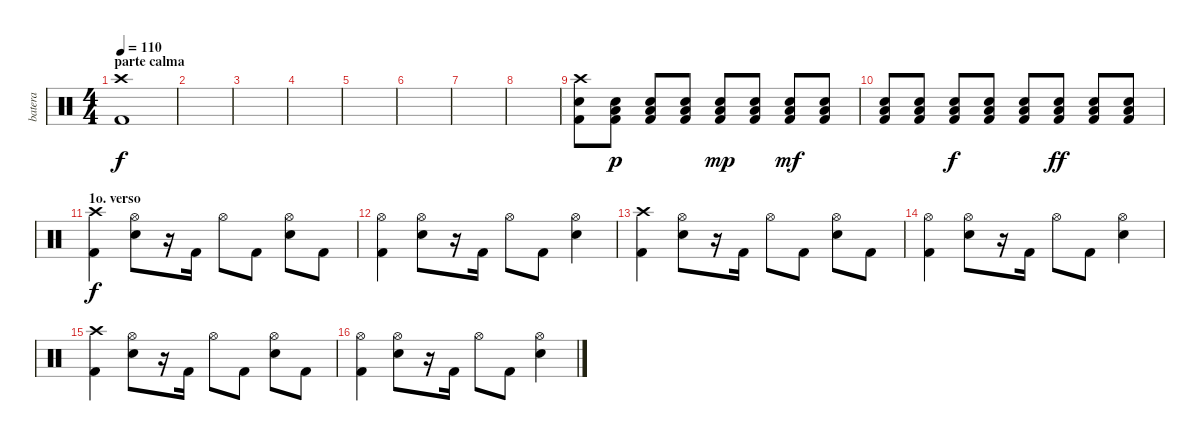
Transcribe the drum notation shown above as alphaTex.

\track ("batera" "batera") {instrument percussion}
\staff {score}
\articulation defaults
\ts (4 4)
\section ("" "parte calma")
\tempo 110
\clef neutral
\ks c
("Crash high (hit)" "Kick (hit) 2").1{dy f} |
|
|
|
|
|
|
|
("Crash high (hit)" "Snare (hit) 2" "Kick (hit) 2").8 ("Low Floor Tom (hit)" "Snare (hit) 2" "Kick (hit) 2").8{dy p} ("Low Floor Tom (hit)" "Snare (hit) 2" "Kick (hit) 2").8 ("Low Floor Tom (hit)" "Snare (hit) 2" "Kick (hit) 2").8 ("Low Floor Tom (hit)" "Snare (hit) 2" "Kick (hit) 2").8{dy mp} ("Low Floor Tom (hit)" "Snare (hit) 2" "Kick (hit) 2").8 ("Low Floor Tom (hit)" "Snare (hit) 2" "Kick (hit) 2").8{dy mf} ("Low Floor Tom (hit)" "Snare (hit) 2" "Kick (hit) 2").8 |
("Low Floor Tom (hit)" "Snare (hit) 2" "Kick (hit) 2").8 ("Low Floor Tom (hit)" "Snare (hit) 2" "Kick (hit) 2").8 ("Low Floor Tom (hit)" "Snare (hit) 2" "Kick (hit) 2").8{dy f} ("Low Floor Tom (hit)" "Snare (hit) 2" "Kick (hit) 2").8 ("Low Floor Tom (hit)" "Snare (hit) 2" "Kick (hit) 2").8 ("Low Floor Tom (hit)" "Snare (hit) 2" "Kick (hit) 2").8{dy ff} ("Low Floor Tom (hit)" "Snare (hit) 2" "Kick (hit) 2").8 ("Low Floor Tom (hit)" "Snare (hit) 2" "Kick (hit) 2").8 |
\section ("" "1o. verso")
("Crash high (hit)" "Kick (hit) 2").4{dy f} ("Snare (hit) 2" "Hi-Hat (open)").8 r.16 "Kick (hit) 2".16 "Hi-Hat (open)".8 "Kick (hit) 2".8 ("Snare (hit) 2" "Hi-Hat (open)").8 "Kick (hit) 2".8 |
("Kick (hit) 2" "Hi-Hat (open)").4 ("Snare (hit) 2" "Hi-Hat (open)").8 r.16 "Kick (hit) 2".16 "Hi-Hat (open)".8 "Kick (hit) 2".8 ("Snare (hit) 2" "Hi-Hat (open)").4 |
("Crash high (hit)" "Kick (hit) 2").4 ("Snare (hit) 2" "Hi-Hat (open)").8 r.16 "Kick (hit) 2".16 "Hi-Hat (open)".8 "Kick (hit) 2".8 ("Snare (hit) 2" "Hi-Hat (open)").8 "Kick (hit) 2".8 |
("Kick (hit) 2" "Hi-Hat (open)").4 ("Snare (hit) 2" "Hi-Hat (open)").8 r.16 "Kick (hit) 2".16 "Hi-Hat (open)".8 "Kick (hit) 2".8 ("Snare (hit) 2" "Hi-Hat (open)").4 |
("Crash high (hit)" "Kick (hit) 2").4 ("Snare (hit) 2" "Hi-Hat (open)").8 r.16 "Kick (hit) 2".16 "Hi-Hat (open)".8 "Kick (hit) 2".8 ("Snare (hit) 2" "Hi-Hat (open)").8 "Kick (hit) 2".8 |
("Kick (hit) 2" "Hi-Hat (open)").4 ("Snare (hit) 2" "Hi-Hat (open)").8 r.16 "Kick (hit) 2".16 "Hi-Hat (open)".8 "Kick (hit) 2".8 ("Snare (hit) 2" "Hi-Hat (open)").4
